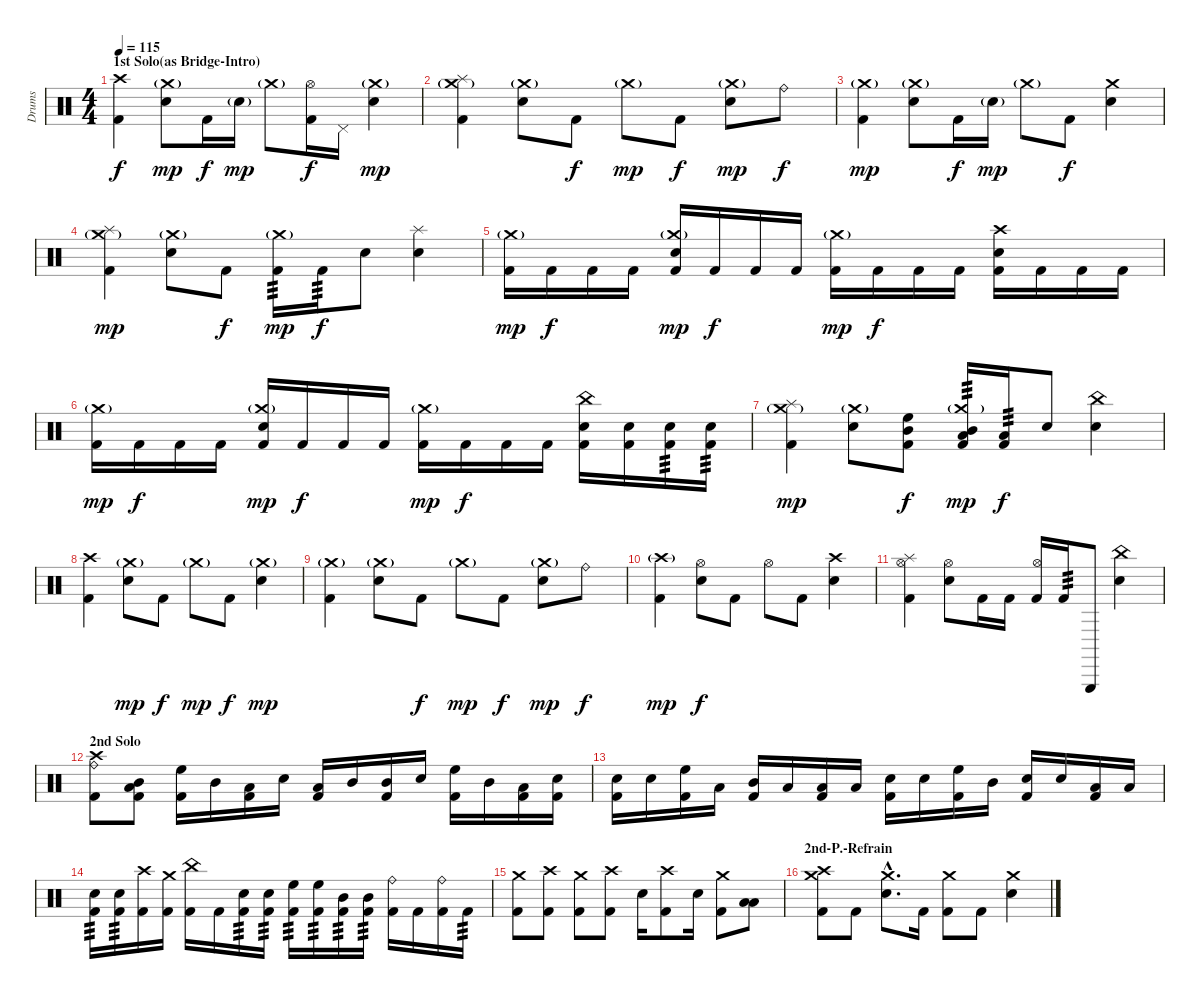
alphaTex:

\track ("Drums" "Drums") {instrument percussion}
\staff {score}
\articulation defaults
\ts (4 4)
\section ("" "1st Solo(as Bridge-Intro)")
\tempo 115
\clef neutral
\ks c
("Crash high (hit)" "Kick (hit) 2").4{dy f} ("Crash medium (hit)"{g} "Snare (hit) 2").8{dy mp} "Kick (hit) 2".16{dy f} "Snare (hit) 2"{g}.16{dy mp} "Crash medium (hit)"{g}.8 ("Hi-Hat (open)" "Kick (hit) 2").16{dy f} "Pedal Hi-Hat (hit)".16 ("Crash medium (hit)"{g} "Snare (hit) 2").4{dy mp} |
("Crash medium (hit)"{g} "Splash (hit)" "Kick (hit) 2").4 ("Crash medium (hit)"{g} "Snare (hit) 2").8 "Kick (hit) 2".8{dy f} "Crash medium (hit)"{g}.8{dy mp} "Kick (hit) 2".8{dy f} ("Crash medium (hit)"{g} "Snare (hit) 2").8{dy mp} "Ride (bell)".8{dy f} |
("Crash medium (hit)"{g} "Kick (hit) 2").4{dy mp} ("Crash medium (hit)"{g} "Snare (hit) 2").8 "Kick (hit) 2".16{dy f} "Snare (hit) 2"{g}.16{dy mp} "Crash medium (hit)"{g}.8 "Kick (hit) 2".8{dy f} ("Crash medium (hit)" "Snare (hit) 2").4 |
("Crash medium (hit)"{g} "Splash (hit)" "Kick (hit) 2").4{dy mp} ("Crash medium (hit)"{g} "Snare (hit) 2").8 "Kick (hit) 2".8{dy f} ("Crash medium (hit)"{g} "Kick (hit) 2").16{tp 3 dy mp} "Kick (hit) 2".16{tp 3 dy f} "Snare (hit) 2".8 ("Splash (hit)" "Snare (hit) 2").4 |
("Crash medium (hit)"{g} "Kick (hit) 2").16{dy mp} "Kick (hit) 2".16{dy f} "Kick (hit) 2".16 "Kick (hit) 2".16 ("Crash medium (hit)"{g} "Snare (hit) 2" "Kick (hit) 2").16{dy mp} "Kick (hit) 2".16{dy f} "Kick (hit) 2".16 "Kick (hit) 2".16 ("Crash medium (hit)"{g} "Kick (hit) 2").16{dy mp} "Kick (hit) 2".16{dy f} "Kick (hit) 2".16 "Kick (hit) 2".16 ("Crash high (hit)" "Snare (hit) 2" "Kick (hit) 2").16 "Kick (hit) 2".16 "Kick (hit) 2".16 "Kick (hit) 2".16 |
("Crash medium (hit)"{g} "Kick (hit) 2").16{dy mp} "Kick (hit) 2".16{dy f} "Kick (hit) 2".16 "Kick (hit) 2".16 ("Crash medium (hit)"{g} "Snare (hit) 2" "Kick (hit) 2").16{dy mp} "Kick (hit) 2".16{dy f} "Kick (hit) 2".16 "Kick (hit) 2".16 ("Crash medium (hit)"{g} "Kick (hit) 2").16{dy mp} "Kick (hit) 2".16{dy f} "Kick (hit) 2".16 "Kick (hit) 2".16 ("China (hit)" "Snare (hit) 2" "Kick (hit) 2").16 ("Snare (hit) 2" "Kick (hit) 2").16 ("Snare (hit) 2" "Kick (hit) 2").16{tp 3} ("Snare (hit) 2" "Kick (hit) 2").16{tp 3} |
("Crash medium (hit)"{g} "Splash (hit)" "Kick (hit) 2").4{dy mp} ("Crash medium (hit)"{g} "Snare (hit) 2").8 ("High Floor Tom (hit)" "Mid Tom (hit)" "Kick (hit) 2").8{dy f} ("Crash medium (hit)"{g} "Mid Tom (hit)" "Low Tom (hit)" "Kick (hit) 2").16{tp 3 dy mp} ("Low Tom (hit)" "Kick (hit) 2").16{tp 3 dy f} "Snare (hit) 2".8 ("China (hit)" "Snare (hit) 2").4 |
("Crash high (hit)" "Kick (hit) 2").4 ("Crash medium (hit)"{g} "Snare (hit) 2").8{dy mp} "Kick (hit) 2".8{dy f} "Crash medium (hit)"{g}.8{dy mp} "Kick (hit) 2".8{dy f} ("Crash medium (hit)"{g} "Snare (hit) 2").4{dy mp} |
("Crash medium (hit)"{g} "Kick (hit) 2").4 ("Crash medium (hit)"{g} "Snare (hit) 2").8 "Kick (hit) 2".8{dy f} "Crash medium (hit)"{g}.8{dy mp} "Kick (hit) 2".8{dy f} ("Crash medium (hit)"{g} "Snare (hit) 2").8{dy mp} "Ride (bell)".8{dy f} |
("Crash high (hit)"{g} "Kick (hit) 2").4{dy mp} ("Hi-Hat (open)" "Snare (hit) 2").8{dy f} "Kick (hit) 2".8 "Hi-Hat (open)".8 "Kick (hit) 2".8 ("Crash high (hit)" "Snare (hit) 2").4 |
("Hi-Hat (open)" "Splash (hit)" "Kick (hit) 2").4 ("Hi-Hat (open)" "Snare (hit) 2").8 "Kick (hit) 2".16 "Kick (hit) 2".16 ("Hi-Hat (open)" "Kick (hit) 2").16 "Kick (hit) 2".16{tp 3} "Triangle (hit)".8 ("China (hit)" "Snare (hit) 2").4 |
\section ("" "2nd Solo")
("Crash high (hit)" "Ride (bell)" "Kick (hit) 2").8 ("Mid Tom (hit)" "Low Tom (hit)" "Kick (hit) 2").8 ("High Floor Tom (hit)" "Kick (hit) 2").16 "Mid Tom (hit)".16 ("Low Tom (hit)" "Kick (hit) 2").16 "Snare (hit) 2".16 ("Low Tom (hit)" "Kick (hit) 2").16 "Mid Tom (hit)".16 ("Mid Tom (hit)" "Kick (hit) 2").16 "Snare (hit) 2".16 ("High Floor Tom (hit)" "Kick (hit) 2").16 "Mid Tom (hit)".16 ("Low Tom (hit)" "Kick (hit) 2").16 ("Snare (hit) 2" "Kick (hit) 2").16 |
("Snare (hit) 2" "Kick (hit) 2").16 "Snare (hit) 2".16 ("High Floor Tom (hit)" "Kick (hit) 2").16 "Low Floor Tom (hit)".16 ("Mid Tom (hit)" "Kick (hit) 2").16 "Low Floor Tom (hit)".16 ("Low Tom (hit)" "Kick (hit) 2").16 "Low Floor Tom (hit)".16 ("Snare (hit) 2" "Kick (hit) 2").16 "Snare (hit) 2".16 ("High Floor Tom (hit)" "Kick (hit) 2").16 "Mid Tom (hit)".16 ("Snare (hit) 2" "Kick (hit) 2").16 "Snare (hit) 2".16 ("Low Tom (hit)" "Kick (hit) 2").16 "Low Floor Tom (hit)".16 |
("Snare (hit) 2" "Kick (hit) 2").16{tp 3} ("Snare (hit) 2" "Kick (hit) 2").16{tp 3} ("Crash high (hit)" "Kick (hit) 2").16 ("Crash medium (hit)" "Kick (hit) 2").16 ("China (hit)" "Kick (hit) 2").16 "Kick (hit) 2".16 ("Snare (hit) 2" "Kick (hit) 2").16{tp 3} ("Snare (hit) 2" "Kick (hit) 2").16{tp 3} ("High Floor Tom (hit)" "Kick (hit) 2").16{tp 3} ("High Floor Tom (hit)" "Kick (hit) 2").16{tp 3} ("Mid Tom (hit)" "Kick (hit) 2").16{tp 3} ("Mid Tom (hit)" "Kick (hit) 2").16{tp 3} ("Ride (bell)" "Kick (hit) 2").16 "Kick (hit) 2".16 ("Ride (bell)" "Kick (hit) 2").16 "Kick (hit) 2".16{tp 3} |
("Crash medium (hit)" "Kick (hit) 2").8 ("Crash high (hit)" "Kick (hit) 2").8 ("Crash medium (hit)" "Kick (hit) 2").8 ("Crash high (hit)" "Kick (hit) 2").8 "Snare (hit) 2".16 ("Crash high (hit)" "Kick (hit) 2").8 "Snare (hit) 2".16 ("Crash medium (hit)" "Kick (hit) 2").8 ("Low Tom (hit)" "Low Floor Tom (hit)").8 |
\section ("" "2nd-P.-Refrain")
("Crash medium (hit)" "Crash high (hit)" "Kick (hit) 2").8 "Kick (hit) 2".8 ("Crash medium (hit)"{hac} "Snare (hit) 2"{hac}).8{d} "Kick (hit) 2".16 ("Crash medium (hit)" "Kick (hit) 2").8 "Kick (hit) 2".8 ("Crash medium (hit)" "Snare (hit) 2").4
